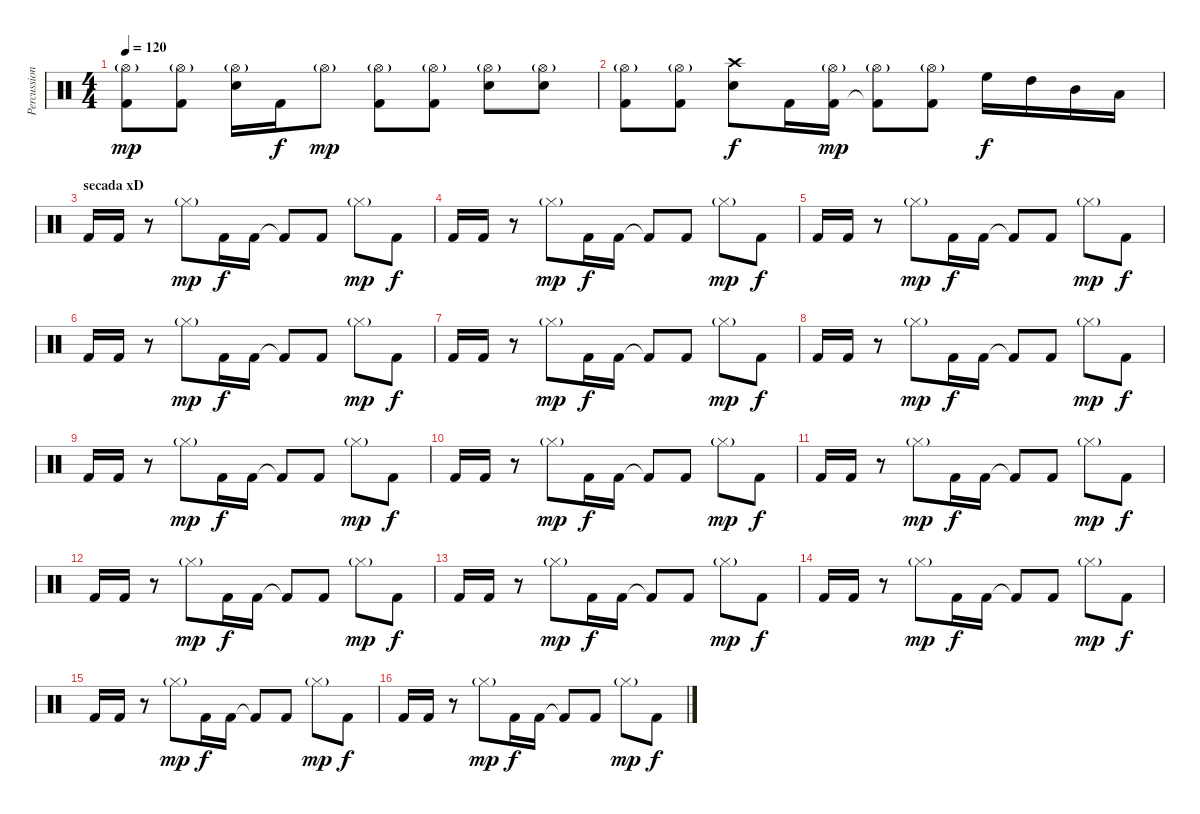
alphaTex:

\track ("Percussion" "Percussion") {instrument percussion}
\staff {score}
\articulation defaults
\ts (4 4)
\tempo 120
\clef neutral
\ks c
("Hi-Hat (open)"{g} "Kick (hit) 2").8{dy mp} ("Hi-Hat (open)"{g} "Kick (hit) 2").8 ("Hi-Hat (open)"{g} "Snare (hit) 2").16 "Kick (hit) 2".16{dy f} "Hi-Hat (open)"{g}.8{dy mp} ("Hi-Hat (open)"{g} "Kick (hit) 2").8 ("Hi-Hat (open)"{g} "Kick (hit) 2").8 ("Hi-Hat (open)"{g} "Snare (hit) 2").8 ("Hi-Hat (open)"{g} "Snare (hit) 2").8 |
("Hi-Hat (open)"{g} "Kick (hit) 2").8 ("Hi-Hat (open)"{g} "Kick (hit) 2").8 ("Crash high (hit)" "Snare (hit) 2").8{dy f} "Kick (hit) 2".16 ("Hi-Hat (open)"{g} "Kick (hit) 2").16{dy mp} ("Hi-Hat (open)"{g} "Kick (hit) 2"{t}).8 ("Hi-Hat (open)"{g} "Kick (hit) 2").8 "High Floor Tom (hit)".16{dy f} "High Tom (hit)".16 "Mid Tom (hit)".16 "Low Tom (hit)".16 |
\section ("" "secada xD")
"Kick (hit) 2".16 "Kick (hit) 2".16 r.8 "Hi-Hat (closed)"{g}.8{dy mp} "Kick (hit) 2".16{dy f} "Kick (hit) 2".16 "Kick (hit) 2"{t}.8 "Kick (hit) 2".8 "Hi-Hat (closed)"{g}.8{dy mp} "Kick (hit) 2".8{dy f} |
"Kick (hit) 2".16 "Kick (hit) 2".16 r.8 "Hi-Hat (closed)"{g}.8{dy mp} "Kick (hit) 2".16{dy f} "Kick (hit) 2".16 "Kick (hit) 2"{t}.8 "Kick (hit) 2".8 "Hi-Hat (closed)"{g}.8{dy mp} "Kick (hit) 2".8{dy f} |
"Kick (hit) 2".16 "Kick (hit) 2".16 r.8 "Hi-Hat (closed)"{g}.8{dy mp} "Kick (hit) 2".16{dy f} "Kick (hit) 2".16 "Kick (hit) 2"{t}.8 "Kick (hit) 2".8 "Hi-Hat (closed)"{g}.8{dy mp} "Kick (hit) 2".8{dy f} |
"Kick (hit) 2".16 "Kick (hit) 2".16 r.8 "Hi-Hat (closed)"{g}.8{dy mp} "Kick (hit) 2".16{dy f} "Kick (hit) 2".16 "Kick (hit) 2"{t}.8 "Kick (hit) 2".8 "Hi-Hat (closed)"{g}.8{dy mp} "Kick (hit) 2".8{dy f} |
"Kick (hit) 2".16 "Kick (hit) 2".16 r.8 "Hi-Hat (closed)"{g}.8{dy mp} "Kick (hit) 2".16{dy f} "Kick (hit) 2".16 "Kick (hit) 2"{t}.8 "Kick (hit) 2".8 "Hi-Hat (closed)"{g}.8{dy mp} "Kick (hit) 2".8{dy f} |
"Kick (hit) 2".16 "Kick (hit) 2".16 r.8 "Hi-Hat (closed)"{g}.8{dy mp} "Kick (hit) 2".16{dy f} "Kick (hit) 2".16 "Kick (hit) 2"{t}.8 "Kick (hit) 2".8 "Hi-Hat (closed)"{g}.8{dy mp} "Kick (hit) 2".8{dy f} |
"Kick (hit) 2".16 "Kick (hit) 2".16 r.8 "Hi-Hat (closed)"{g}.8{dy mp} "Kick (hit) 2".16{dy f} "Kick (hit) 2".16 "Kick (hit) 2"{t}.8 "Kick (hit) 2".8 "Hi-Hat (closed)"{g}.8{dy mp} "Kick (hit) 2".8{dy f} |
"Kick (hit) 2".16 "Kick (hit) 2".16 r.8 "Hi-Hat (closed)"{g}.8{dy mp} "Kick (hit) 2".16{dy f} "Kick (hit) 2".16 "Kick (hit) 2"{t}.8 "Kick (hit) 2".8 "Hi-Hat (closed)"{g}.8{dy mp} "Kick (hit) 2".8{dy f} |
"Kick (hit) 2".16 "Kick (hit) 2".16 r.8 "Hi-Hat (closed)"{g}.8{dy mp} "Kick (hit) 2".16{dy f} "Kick (hit) 2".16 "Kick (hit) 2"{t}.8 "Kick (hit) 2".8 "Hi-Hat (closed)"{g}.8{dy mp} "Kick (hit) 2".8{dy f} |
"Kick (hit) 2".16 "Kick (hit) 2".16 r.8 "Hi-Hat (closed)"{g}.8{dy mp} "Kick (hit) 2".16{dy f} "Kick (hit) 2".16 "Kick (hit) 2"{t}.8 "Kick (hit) 2".8 "Hi-Hat (closed)"{g}.8{dy mp} "Kick (hit) 2".8{dy f} |
"Kick (hit) 2".16 "Kick (hit) 2".16 r.8 "Hi-Hat (closed)"{g}.8{dy mp} "Kick (hit) 2".16{dy f} "Kick (hit) 2".16 "Kick (hit) 2"{t}.8 "Kick (hit) 2".8 "Hi-Hat (closed)"{g}.8{dy mp} "Kick (hit) 2".8{dy f} |
"Kick (hit) 2".16 "Kick (hit) 2".16 r.8 "Hi-Hat (closed)"{g}.8{dy mp} "Kick (hit) 2".16{dy f} "Kick (hit) 2".16 "Kick (hit) 2"{t}.8 "Kick (hit) 2".8 "Hi-Hat (closed)"{g}.8{dy mp} "Kick (hit) 2".8{dy f} |
"Kick (hit) 2".16 "Kick (hit) 2".16 r.8 "Hi-Hat (closed)"{g}.8{dy mp} "Kick (hit) 2".16{dy f} "Kick (hit) 2".16 "Kick (hit) 2"{t}.8 "Kick (hit) 2".8 "Hi-Hat (closed)"{g}.8{dy mp} "Kick (hit) 2".8{dy f} |
"Kick (hit) 2".16 "Kick (hit) 2".16 r.8 "Hi-Hat (closed)"{g}.8{dy mp} "Kick (hit) 2".16{dy f} "Kick (hit) 2".16 "Kick (hit) 2"{t}.8 "Kick (hit) 2".8 "Hi-Hat (closed)"{g}.8{dy mp} "Kick (hit) 2".8{dy f}
